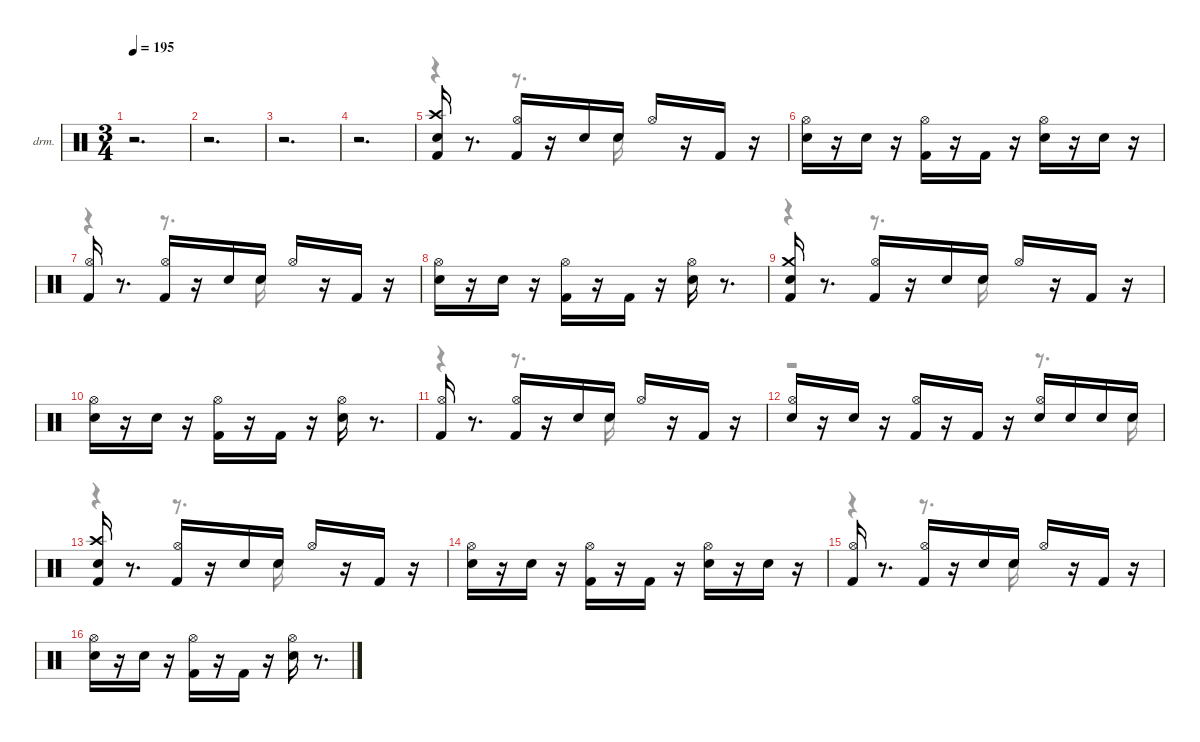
\hideDynamics
\bracketExtendMode nobrackets
\firstSystemTrackNameOrientation horizontal
\otherSystemsTrackNameOrientation horizontal
\track ("EZdrummer 3" "drm.") {instrument percussion}
\staff {score}
\articulation defaults
\voice
\ts (3 4)
\tempo 195
\clef neutral
\ks aminor
r.2{d dy ff beam Down} |
r.2{d beam Down} |
r.2{d beam Down} |
r.2{d beam Down} |
("Kick (hit) 2" "Snare (hit) 2" "Crash high (hit)"{acc #}).16{beam Up} r.8{d beam Up} ("Kick (hit) 2" "Hi-Hat (open)"{acc #}).16{dy mf beam Up} r.16{beam Up} "Snare (hit) 2".16{dy f beam Up} "Snare (hit) 2".16{dy ppp beam Up} "Hi-Hat (open)"{acc #}.16{dy f beam Up} r.16{beam Up} "Kick (hit) 2".16{beam Up} r.16{beam Up} |
("Snare (hit) 2" "Hi-Hat (open)"{acc #}).16{dy ff beam Down} r.16{beam Down} "Snare (hit) 2".16{dy ppp beam Down} r.16{beam Down} ("Kick (hit) 2" "Hi-Hat (open)"{acc #}).16{beam Down} r.16{beam Down} "Kick (hit) 2".16{dy ff beam Up} r.16{beam Up} ("Snare (hit) 2" "Hi-Hat (open)"{acc #}).16{dy fff beam Down} r.16{beam Down} "Snare (hit) 2".16{dy pp beam Down} r.16{beam Down} |
("Kick (hit) 2" "Hi-Hat (open)"{acc #}).16{dy fff beam Up} r.8{d beam Up} ("Kick (hit) 2" "Hi-Hat (open)"{acc #}).16{dy f beam Up} r.16{beam Up} "Snare (hit) 2".16{beam Up} "Snare (hit) 2".16{dy ppp beam Up} "Hi-Hat (open)"{acc #}.16{dy ff beam Up} r.16{beam Up} "Kick (hit) 2".16{dy f beam Up} r.16{beam Up} |
("Snare (hit) 2" "Hi-Hat (open)"{acc #}).16{dy ff beam Down} r.16{beam Down} "Snare (hit) 2".16{dy ppp beam Down} r.16{beam Down} ("Kick (hit) 2" "Hi-Hat (open)"{acc #}).16{beam Down} r.16{beam Down} "Kick (hit) 2".16{dy ff beam Up} r.16{beam Up} ("Snare (hit) 2" "Hi-Hat (open)"{acc #}).16{beam Down} r.8{d beam Down} |
("Kick (hit) 2" "Snare (hit) 2" "Crash medium (hit)").16{beam Up} r.8{d beam Up} ("Kick (hit) 2" "Hi-Hat (open)"{acc #}).16{dy mf beam Up} r.16{beam Up} "Snare (hit) 2".16{dy f beam Up} "Snare (hit) 2".16{dy ppp beam Up} "Hi-Hat (open)"{acc #}.16{dy f beam Up} r.16{beam Up} "Kick (hit) 2".16{beam Up} r.16{beam Up} |
("Snare (hit) 2" "Hi-Hat (open)"{acc #}).16{dy ff beam Down} r.16{beam Down} "Snare (hit) 2".16{dy ppp beam Down} r.16{beam Down} ("Kick (hit) 2" "Hi-Hat (open)"{acc #}).16{beam Down} r.16{beam Down} "Kick (hit) 2".16{dy ff beam Up} r.16{beam Up} ("Snare (hit) 2" "Hi-Hat (open)"{acc #}).16{dy fff beam Down} r.8{d beam Down} |
("Kick (hit) 2" "Hi-Hat (open)"{acc #}).16{dy ff beam Up} r.8{d beam Up} ("Kick (hit) 2" "Hi-Hat (open)"{acc #}).16{dy mf beam Up} r.16{beam Up} "Snare (hit) 2".16{dy f beam Up} "Snare (hit) 2".16{dy ppp beam Up} "Hi-Hat (open)"{acc #}.16{dy ff beam Up} r.16{beam Up} "Kick (hit) 2".16{dy f beam Up} r.16{beam Up} |
("Snare (hit) 2" "Hi-Hat (open)"{acc #}).16{dy ff beam Up} r.16{beam Up} "Snare (hit) 2".16{dy ppp beam Up} r.16{beam Up} ("Kick (hit) 2" "Hi-Hat (open)"{acc #}).16{dy mf beam Up} r.16{beam Up} "Kick (hit) 2".16{dy ff beam Up} r.16{beam Up} ("Snare (hit) 2" "Hi-Hat (open)"{acc #}).16{dy f beam Up} "Snare (hit) 2".16{dy pp beam Up} "Snare (hit) 2".16{dy ppp beam Up} "Snare (hit) 2".16{beam Up} |
("Crash high (hit)"{acc #} "Kick (hit) 2" "Snare (hit) 2").16{dy ff beam Up} r.8{d beam Up} ("Kick (hit) 2" "Hi-Hat (open)"{acc #}).16{dy mf beam Up} r.16{beam Up} "Snare (hit) 2".16{dy f beam Up} "Snare (hit) 2".16{dy ppp beam Up} "Hi-Hat (open)"{acc #}.16{dy f beam Up} r.16{beam Up} "Kick (hit) 2".16{beam Up} r.16{beam Up} |
("Snare (hit) 2" "Hi-Hat (open)"{acc #}).16{dy ff beam Down} r.16{beam Down} "Snare (hit) 2".16{dy ppp beam Down} r.16{beam Down} ("Kick (hit) 2" "Hi-Hat (open)"{acc #}).16{beam Down} r.16{beam Down} "Kick (hit) 2".16{dy ff beam Up} r.16{beam Up} ("Snare (hit) 2" "Hi-Hat (open)"{acc #}).16{dy fff beam Down} r.16{beam Down} "Snare (hit) 2".16{dy pp beam Down} r.16{beam Down} |
("Kick (hit) 2" "Hi-Hat (open)"{acc #}).16{dy ff beam Up} r.8{d beam Up} ("Kick (hit) 2" "Hi-Hat (open)"{acc #}).16{dy mf beam Up} r.16{beam Up} "Snare (hit) 2".16{dy f beam Up} "Snare (hit) 2".16{dy ppp beam Up} "Hi-Hat (open)"{acc #}.16{dy ff beam Up} r.16{beam Up} "Kick (hit) 2".16{dy f beam Up} r.16{beam Up} |
("Snare (hit) 2" "Hi-Hat (open)"{acc #}).16{dy ff beam Down} r.16{beam Down} "Snare (hit) 2".16{dy ppp beam Down} r.16{beam Down} ("Kick (hit) 2" "Hi-Hat (open)"{acc #}).16{beam Down} r.16{beam Down} "Kick (hit) 2".16{dy ff beam Up} r.16{beam Up} ("Snare (hit) 2" "Hi-Hat (open)"{acc #}).16{beam Down} r.8{d beam Down}
\voice
\clef neutral
\ottava regular
\simile none
\ks aminor
|
|
|
|
r.4{beam Down} r.8{d beam Down} "Snare (hit) 2".16{beam Down} |
|
r.4{beam Down} r.8{d beam Down} "Snare (hit) 2".16{beam Down} |
|
r.4{beam Down} r.8{d beam Down} "Snare (hit) 2".16{beam Down} |
|
r.4{beam Down} r.8{d beam Down} "Snare (hit) 2".16{beam Down} |
r.2{beam Down} r.8{d beam Down} "Snare (hit) 2".16{dy ppp beam Down} |
r.4{beam Down} r.8{d beam Down} "Snare (hit) 2".16{dy pp beam Down} |
|
r.4{beam Down} r.8{d beam Down} "Snare (hit) 2".16{beam Down} |
